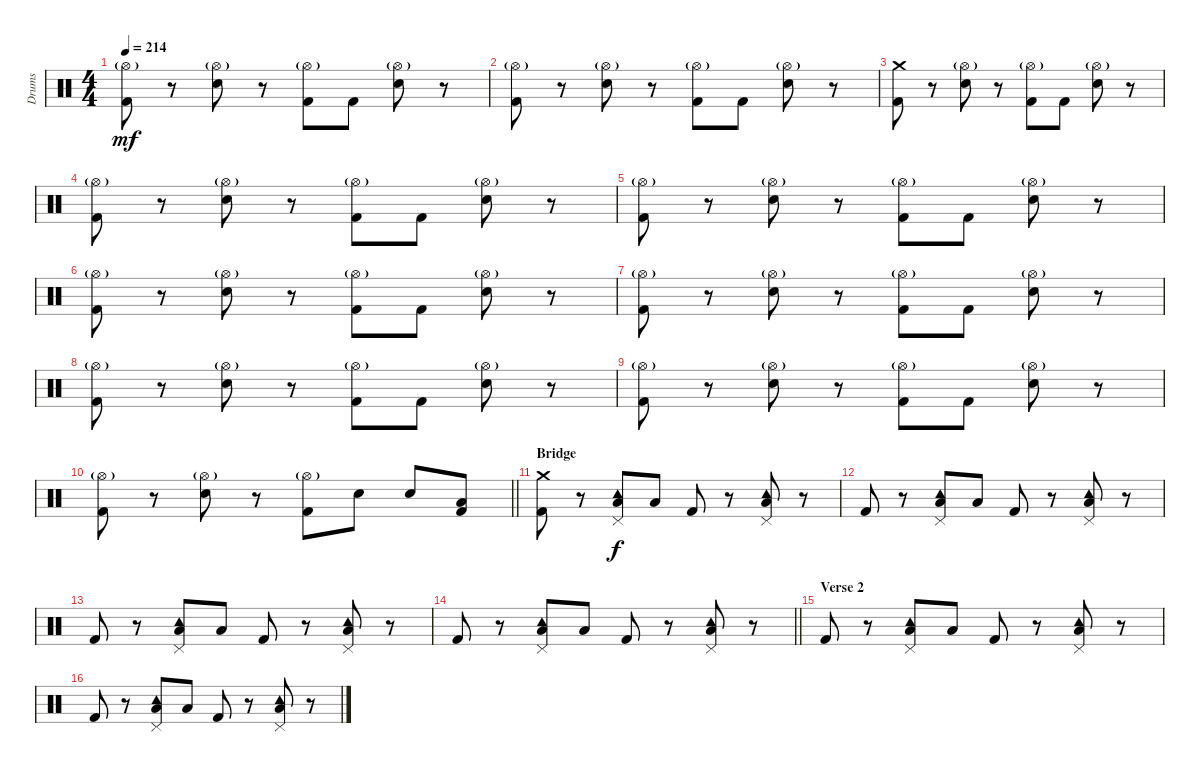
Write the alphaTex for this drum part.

\track ("Drums" "Drums") {instrument percussion}
\staff {score}
\articulation defaults
\ts (4 4)
\tempo 214
\clef neutral
\ks c
("Hi-Hat (open)"{g} "Kick (hit) 2").8{dy mf} r.8 ("Hi-Hat (open)"{g} "Snare (hit) 2").8 r.8 ("Hi-Hat (open)"{g} "Kick (hit) 2").8 "Kick (hit) 2".8 ("Hi-Hat (open)"{g} "Snare (hit) 2").8 r.8 |
("Hi-Hat (open)"{g} "Kick (hit) 2").8 r.8 ("Hi-Hat (open)"{g} "Snare (hit) 2").8 r.8 ("Hi-Hat (open)"{g} "Kick (hit) 2").8 "Kick (hit) 2".8 ("Hi-Hat (open)"{g} "Snare (hit) 2").8 r.8 |
("Crash medium (hit)" "Kick (hit) 2").8 r.8 ("Hi-Hat (open)"{g} "Snare (hit) 2").8 r.8 ("Hi-Hat (open)"{g} "Kick (hit) 2").8 "Kick (hit) 2".8 ("Hi-Hat (open)"{g} "Snare (hit) 2").8 r.8 |
("Hi-Hat (open)"{g} "Kick (hit) 2").8 r.8 ("Hi-Hat (open)"{g} "Snare (hit) 2").8 r.8 ("Hi-Hat (open)"{g} "Kick (hit) 2").8 "Kick (hit) 2".8 ("Hi-Hat (open)"{g} "Snare (hit) 2").8 r.8 |
("Hi-Hat (open)"{g} "Kick (hit) 2").8 r.8 ("Hi-Hat (open)"{g} "Snare (hit) 2").8 r.8 ("Hi-Hat (open)"{g} "Kick (hit) 2").8 "Kick (hit) 2".8 ("Hi-Hat (open)"{g} "Snare (hit) 2").8 r.8 |
("Hi-Hat (open)"{g} "Kick (hit) 2").8 r.8 ("Hi-Hat (open)"{g} "Snare (hit) 2").8 r.8 ("Hi-Hat (open)"{g} "Kick (hit) 2").8 "Kick (hit) 2".8 ("Hi-Hat (open)"{g} "Snare (hit) 2").8 r.8 |
("Hi-Hat (open)"{g} "Kick (hit) 2").8 r.8 ("Hi-Hat (open)"{g} "Snare (hit) 2").8 r.8 ("Hi-Hat (open)"{g} "Kick (hit) 2").8 "Kick (hit) 2".8 ("Hi-Hat (open)"{g} "Snare (hit) 2").8 r.8 |
("Hi-Hat (open)"{g} "Kick (hit) 2").8 r.8 ("Hi-Hat (open)"{g} "Snare (hit) 2").8 r.8 ("Hi-Hat (open)"{g} "Kick (hit) 2").8 "Kick (hit) 2".8 ("Hi-Hat (open)"{g} "Snare (hit) 2").8 r.8 |
("Hi-Hat (open)"{g} "Kick (hit) 2").8 r.8 ("Hi-Hat (open)"{g} "Snare (hit) 2").8 r.8 ("Hi-Hat (open)"{g} "Kick (hit) 2").8 "Kick (hit) 2".8 ("Hi-Hat (open)"{g} "Snare (hit) 2").8 r.8 |
\barLineRight lightlight
("Hi-Hat (open)"{g} "Kick (hit) 2").8 r.8 ("Hi-Hat (open)"{g} "Snare (hit) 2").8 r.8 ("Hi-Hat (open)"{g} "Kick (hit) 2").8 "Snare (hit) 2".8 "Snare (hit) 2".8 ("Low Floor Tom (hit)" "Kick (hit) 2").8 |
\section ("" "Bridge")
("Crash medium (hit)" "Kick (hit) 2").8 r.8 ("Pedal Hi-Hat (hit)" "Tambourine (hit)" "Low Tom (hit)").8{dy f} "Low Tom (hit)".8 "Kick (hit) 2".8 r.8 ("Pedal Hi-Hat (hit)" "Tambourine (hit)" "Low Tom (hit)").8 r.8 |
"Kick (hit) 2".8 r.8 ("Pedal Hi-Hat (hit)" "Tambourine (hit)" "Low Tom (hit)").8 "Low Tom (hit)".8 "Kick (hit) 2".8 r.8 ("Pedal Hi-Hat (hit)" "Tambourine (hit)" "Low Tom (hit)").8 r.8 |
"Kick (hit) 2".8 r.8 ("Pedal Hi-Hat (hit)" "Tambourine (hit)" "Low Tom (hit)").8 "Low Tom (hit)".8 "Kick (hit) 2".8 r.8 ("Pedal Hi-Hat (hit)" "Tambourine (hit)" "Low Tom (hit)").8 r.8 |
\barLineRight lightlight "Kick (hit) 2".8
r.8 ("Pedal Hi-Hat (hit)" "Tambourine (hit)" "Low Tom (hit)").8 "Low Tom (hit)".8 "Kick (hit) 2".8 r.8 ("Pedal Hi-Hat (hit)" "Tambourine (hit)" "Low Tom (hit)").8 r.8 |
\section ("" "Verse 2")
"Kick (hit) 2".8 r.8 ("Pedal Hi-Hat (hit)" "Tambourine (hit)" "Low Tom (hit)").8 "Low Tom (hit)".8 "Kick (hit) 2".8 r.8 ("Pedal Hi-Hat (hit)" "Tambourine (hit)" "Low Tom (hit)").8 r.8 |
"Kick (hit) 2".8 r.8 ("Pedal Hi-Hat (hit)" "Tambourine (hit)" "Low Tom (hit)").8 "Low Tom (hit)".8 "Kick (hit) 2".8 r.8 ("Pedal Hi-Hat (hit)" "Tambourine (hit)" "Low Tom (hit)").8 r.8
